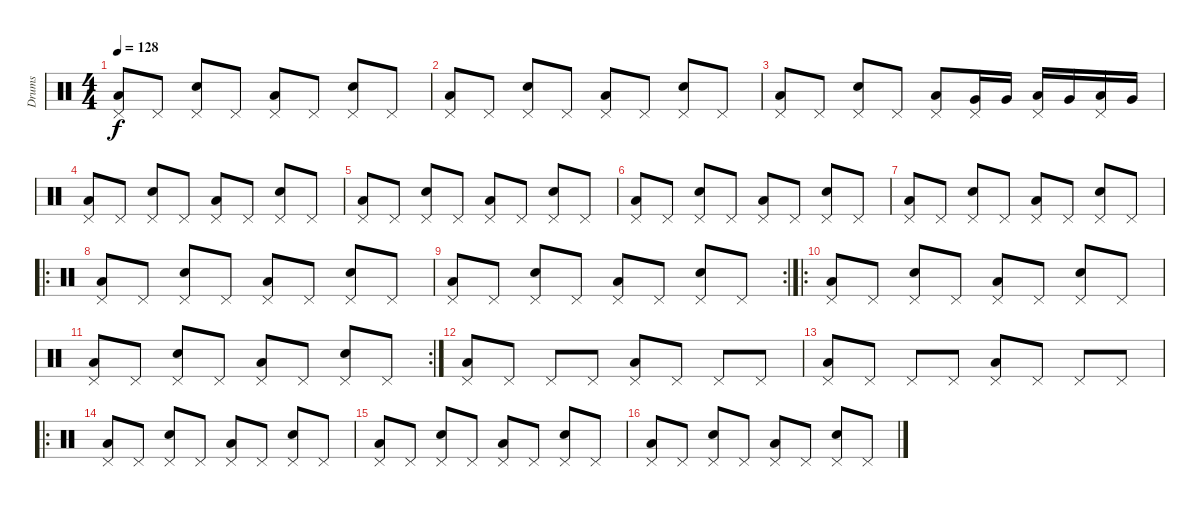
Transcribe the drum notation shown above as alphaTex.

\track ("Drums" "Drums") {instrument percussion}
\staff {score}
\articulation defaults
\ts (4 4)
\tempo 128
\clef neutral
\ks c
("Pedal Hi-Hat (hit)" "Low Floor Tom (hit)").8{dy f} "Pedal Hi-Hat (hit)".8 ("Pedal Hi-Hat (hit)" "Electric Snare (hit)").8 "Pedal Hi-Hat (hit)".8 ("Pedal Hi-Hat (hit)" "Low Floor Tom (hit)").8 "Pedal Hi-Hat (hit)".8 ("Pedal Hi-Hat (hit)" "Electric Snare (hit)").8 "Pedal Hi-Hat (hit)".8 |
("Pedal Hi-Hat (hit)" "Low Floor Tom (hit)").8 "Pedal Hi-Hat (hit)".8 ("Pedal Hi-Hat (hit)" "Electric Snare (hit)").8 "Pedal Hi-Hat (hit)".8 ("Pedal Hi-Hat (hit)" "Low Floor Tom (hit)").8 "Pedal Hi-Hat (hit)".8 ("Pedal Hi-Hat (hit)" "Electric Snare (hit)").8 "Pedal Hi-Hat (hit)".8 |
("Pedal Hi-Hat (hit)" "Low Floor Tom (hit)").8 "Pedal Hi-Hat (hit)".8 ("Pedal Hi-Hat (hit)" "Electric Snare (hit)").8 "Pedal Hi-Hat (hit)".8 ("Pedal Hi-Hat (hit)" "Low Floor Tom (hit)").8 ("Pedal Hi-Hat (hit)" "Very Low Tom (hit)").16 "Very Low Tom (hit)".16 ("Pedal Hi-Hat (hit)" "Low Floor Tom (hit)").16 "Very Low Tom (hit)".16 ("Pedal Hi-Hat (hit)" "Low Floor Tom (hit)").16 "Very Low Tom (hit)".16 |
("Pedal Hi-Hat (hit)" "Low Floor Tom (hit)").8 "Pedal Hi-Hat (hit)".8 ("Pedal Hi-Hat (hit)" "Electric Snare (hit)").8 "Pedal Hi-Hat (hit)".8 ("Pedal Hi-Hat (hit)" "Low Floor Tom (hit)").8 "Pedal Hi-Hat (hit)".8 ("Pedal Hi-Hat (hit)" "Electric Snare (hit)").8 "Pedal Hi-Hat (hit)".8 |
("Pedal Hi-Hat (hit)" "Low Floor Tom (hit)").8 "Pedal Hi-Hat (hit)".8 ("Pedal Hi-Hat (hit)" "Electric Snare (hit)").8 "Pedal Hi-Hat (hit)".8 ("Pedal Hi-Hat (hit)" "Low Floor Tom (hit)").8 "Pedal Hi-Hat (hit)".8 ("Pedal Hi-Hat (hit)" "Electric Snare (hit)").8 "Pedal Hi-Hat (hit)".8 |
("Pedal Hi-Hat (hit)" "Low Floor Tom (hit)").8 "Pedal Hi-Hat (hit)".8 ("Pedal Hi-Hat (hit)" "Electric Snare (hit)").8 "Pedal Hi-Hat (hit)".8 ("Pedal Hi-Hat (hit)" "Low Floor Tom (hit)").8 "Pedal Hi-Hat (hit)".8 ("Pedal Hi-Hat (hit)" "Electric Snare (hit)").8 "Pedal Hi-Hat (hit)".8 |
("Pedal Hi-Hat (hit)" "Low Floor Tom (hit)").8 "Pedal Hi-Hat (hit)".8 ("Pedal Hi-Hat (hit)" "Electric Snare (hit)").8 "Pedal Hi-Hat (hit)".8 ("Pedal Hi-Hat (hit)" "Low Floor Tom (hit)").8 "Pedal Hi-Hat (hit)".8 ("Pedal Hi-Hat (hit)" "Electric Snare (hit)").8 "Pedal Hi-Hat (hit)".8 |
\ro
("Pedal Hi-Hat (hit)" "Low Floor Tom (hit)").8 "Pedal Hi-Hat (hit)".8 ("Pedal Hi-Hat (hit)" "Electric Snare (hit)").8 "Pedal Hi-Hat (hit)".8 ("Pedal Hi-Hat (hit)" "Low Floor Tom (hit)").8 "Pedal Hi-Hat (hit)".8 ("Pedal Hi-Hat (hit)" "Electric Snare (hit)").8 "Pedal Hi-Hat (hit)".8 |
\rc 2
("Pedal Hi-Hat (hit)" "Low Floor Tom (hit)").8 "Pedal Hi-Hat (hit)".8 ("Pedal Hi-Hat (hit)" "Electric Snare (hit)").8 "Pedal Hi-Hat (hit)".8 ("Pedal Hi-Hat (hit)" "Low Floor Tom (hit)").8 "Pedal Hi-Hat (hit)".8 ("Pedal Hi-Hat (hit)" "Electric Snare (hit)").8 "Pedal Hi-Hat (hit)".8 |
\ro
("Pedal Hi-Hat (hit)" "Low Floor Tom (hit)").8 "Pedal Hi-Hat (hit)".8 ("Pedal Hi-Hat (hit)" "Electric Snare (hit)").8 "Pedal Hi-Hat (hit)".8 ("Pedal Hi-Hat (hit)" "Low Floor Tom (hit)").8 "Pedal Hi-Hat (hit)".8 ("Pedal Hi-Hat (hit)" "Electric Snare (hit)").8 "Pedal Hi-Hat (hit)".8 |
\rc 2
("Pedal Hi-Hat (hit)" "Low Floor Tom (hit)").8 "Pedal Hi-Hat (hit)".8 ("Pedal Hi-Hat (hit)" "Electric Snare (hit)").8 "Pedal Hi-Hat (hit)".8 ("Pedal Hi-Hat (hit)" "Low Floor Tom (hit)").8 "Pedal Hi-Hat (hit)".8 ("Pedal Hi-Hat (hit)" "Electric Snare (hit)").8 "Pedal Hi-Hat (hit)".8 |
("Pedal Hi-Hat (hit)" "Low Floor Tom (hit)").8 "Pedal Hi-Hat (hit)".8 "Pedal Hi-Hat (hit)".8 "Pedal Hi-Hat (hit)".8 ("Pedal Hi-Hat (hit)" "Low Floor Tom (hit)").8 "Pedal Hi-Hat (hit)".8 "Pedal Hi-Hat (hit)".8 "Pedal Hi-Hat (hit)".8 |
("Pedal Hi-Hat (hit)" "Low Floor Tom (hit)").8 "Pedal Hi-Hat (hit)".8 "Pedal Hi-Hat (hit)".8 "Pedal Hi-Hat (hit)".8 ("Pedal Hi-Hat (hit)" "Low Floor Tom (hit)").8 "Pedal Hi-Hat (hit)".8 "Pedal Hi-Hat (hit)".8 "Pedal Hi-Hat (hit)".8 |
\ro
("Pedal Hi-Hat (hit)" "Low Floor Tom (hit)").8 "Pedal Hi-Hat (hit)".8 ("Pedal Hi-Hat (hit)" "Electric Snare (hit)").8 "Pedal Hi-Hat (hit)".8 ("Pedal Hi-Hat (hit)" "Low Floor Tom (hit)").8 "Pedal Hi-Hat (hit)".8 ("Pedal Hi-Hat (hit)" "Electric Snare (hit)").8 "Pedal Hi-Hat (hit)".8 |
("Pedal Hi-Hat (hit)" "Low Floor Tom (hit)").8 "Pedal Hi-Hat (hit)".8 ("Pedal Hi-Hat (hit)" "Electric Snare (hit)").8 "Pedal Hi-Hat (hit)".8 ("Pedal Hi-Hat (hit)" "Low Floor Tom (hit)").8 "Pedal Hi-Hat (hit)".8 ("Pedal Hi-Hat (hit)" "Electric Snare (hit)").8 "Pedal Hi-Hat (hit)".8 |
("Pedal Hi-Hat (hit)" "Low Floor Tom (hit)").8 "Pedal Hi-Hat (hit)".8 ("Pedal Hi-Hat (hit)" "Electric Snare (hit)").8 "Pedal Hi-Hat (hit)".8 ("Pedal Hi-Hat (hit)" "Low Floor Tom (hit)").8 "Pedal Hi-Hat (hit)".8 ("Pedal Hi-Hat (hit)" "Electric Snare (hit)").8 "Pedal Hi-Hat (hit)".8
